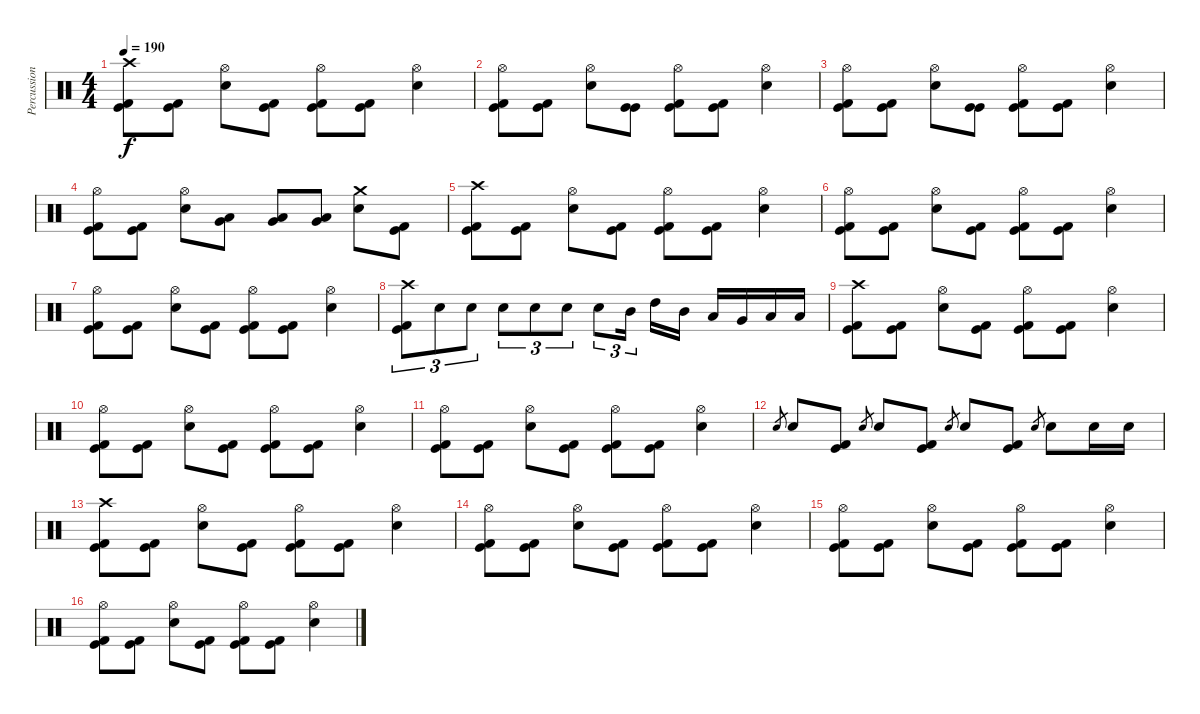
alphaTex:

\track ("Percussions" "Percussion") {instrument percussion}
\staff {score}
\articulation defaults
\ts (4 4)
\tempo 190
\clef neutral
\ks c
("Crash high (hit)" "Kick (hit)" "Kick (hit) 2").8{dy f} ("Kick (hit)" "Kick (hit) 2").8 ("Hi-Hat (open)" "Electric Snare (hit)").8 ("Kick (hit)" "Kick (hit) 2").8 ("Hi-Hat (open)" "Kick (hit)" "Kick (hit) 2").8 ("Kick (hit)" "Kick (hit) 2").8 ("Hi-Hat (open)" "Electric Snare (hit)").4 |
("Hi-Hat (open)" "Kick (hit)" "Kick (hit) 2").8 ("Kick (hit)" "Kick (hit) 2").8 ("Hi-Hat (open)" "Electric Snare (hit)").8 ("Kick (hit)" "Kick (hit)").8 ("Hi-Hat (open)" "Kick (hit)" "Kick (hit) 2").8 ("Kick (hit)" "Kick (hit) 2").8 ("Hi-Hat (open)" "Electric Snare (hit)").4 |
("Hi-Hat (open)" "Kick (hit)" "Kick (hit) 2").8 ("Kick (hit)" "Kick (hit) 2").8 ("Hi-Hat (open)" "Electric Snare (hit)").8 ("Kick (hit)" "Kick (hit)").8 ("Hi-Hat (open)" "Kick (hit)" "Kick (hit) 2").8 ("Kick (hit)" "Kick (hit) 2").8 ("Hi-Hat (open)" "Electric Snare (hit)").4 |
("Hi-Hat (open)" "Kick (hit)" "Kick (hit) 2").8 ("Kick (hit)" "Kick (hit) 2").8 ("Hi-Hat (open)" "Electric Snare (hit)").8 ("Very Low Tom (hit)" "Low Floor Tom (hit)").8 ("Very Low Tom (hit)" "Low Floor Tom (hit)").8 ("Very Low Tom (hit)" "Low Floor Tom (hit)").8 ("Crash medium (hit)" "Electric Snare (hit)").8 ("Kick (hit)" "Kick (hit) 2").8 |
("Crash high (hit)" "Kick (hit)" "Kick (hit) 2").8 ("Kick (hit)" "Kick (hit) 2").8 ("Hi-Hat (open)" "Electric Snare (hit)").8 ("Kick (hit)" "Kick (hit) 2").8 ("Hi-Hat (open)" "Kick (hit)" "Kick (hit) 2").8 ("Kick (hit)" "Kick (hit) 2").8 ("Hi-Hat (open)" "Electric Snare (hit)").4 |
("Hi-Hat (open)" "Kick (hit)" "Kick (hit) 2").8 ("Kick (hit)" "Kick (hit) 2").8 ("Hi-Hat (open)" "Electric Snare (hit)").8 ("Kick (hit)" "Kick (hit) 2").8 ("Hi-Hat (open)" "Kick (hit)" "Kick (hit) 2").8 ("Kick (hit)" "Kick (hit) 2").8 ("Hi-Hat (open)" "Electric Snare (hit)").4 |
("Hi-Hat (open)" "Kick (hit)" "Kick (hit) 2").8 ("Kick (hit)" "Kick (hit) 2").8 ("Hi-Hat (open)" "Electric Snare (hit)").8 ("Kick (hit)" "Kick (hit) 2").8 ("Hi-Hat (open)" "Kick (hit)" "Kick (hit) 2").8 ("Kick (hit)" "Kick (hit) 2").8 ("Hi-Hat (open)" "Electric Snare (hit)").4 |
("Crash high (hit)" "Kick (hit)" "Kick (hit) 2").8{tu (3 2)} "Electric Snare (hit)".8{tu (3 2)} "Electric Snare (hit)".8{tu (3 2)} "Electric Snare (hit)".8{tu (3 2)} "Electric Snare (hit)".8{tu (3 2)} "Electric Snare (hit)".8{tu (3 2)} "Electric Snare (hit)".8{tu (3 2)} "Mid Tom (hit)".16{tu (3 2) beam splitsecondary} "High Tom (hit)".16 "Mid Tom (hit)".16 "Low Tom (hit)".16 "Very Low Tom (hit)".16 "Low Floor Tom (hit)".16 "Low Floor Tom (hit)".16 |
("Crash high (hit)" "Kick (hit)" "Kick (hit) 2").8 ("Kick (hit)" "Kick (hit) 2").8 ("Hi-Hat (open)" "Electric Snare (hit)").8 ("Kick (hit)" "Kick (hit) 2").8 ("Hi-Hat (open)" "Kick (hit)" "Kick (hit) 2").8 ("Kick (hit)" "Kick (hit) 2").8 ("Hi-Hat (open)" "Electric Snare (hit)").4 |
("Hi-Hat (open)" "Kick (hit)" "Kick (hit) 2").8 ("Kick (hit)" "Kick (hit) 2").8 ("Hi-Hat (open)" "Electric Snare (hit)").8 ("Kick (hit)" "Kick (hit) 2").8 ("Hi-Hat (open)" "Kick (hit)" "Kick (hit) 2").8 ("Kick (hit)" "Kick (hit) 2").8 ("Hi-Hat (open)" "Electric Snare (hit)").4 |
("Hi-Hat (open)" "Kick (hit)" "Kick (hit) 2").8 ("Kick (hit)" "Kick (hit) 2").8 ("Hi-Hat (open)" "Electric Snare (hit)").8 ("Kick (hit)" "Kick (hit) 2").8 ("Hi-Hat (open)" "Kick (hit)" "Kick (hit) 2").8 ("Kick (hit)" "Kick (hit) 2").8 ("Hi-Hat (open)" "Electric Snare (hit)").4 |
"Electric Snare (hit)".8{gr} "Electric Snare (hit)".8 ("Kick (hit)" "Kick (hit) 2").8 "Electric Snare (hit)".8{gr} "Electric Snare (hit)".8 ("Kick (hit)" "Kick (hit) 2").8 "Electric Snare (hit)".8{gr} "Electric Snare (hit)".8 ("Kick (hit)" "Kick (hit) 2").8 "Electric Snare (hit)".8{gr} "Electric Snare (hit)".8 "Electric Snare (hit)".16 "Electric Snare (hit)".16 |
("Crash high (hit)" "Kick (hit)" "Kick (hit) 2").8 ("Kick (hit)" "Kick (hit) 2").8 ("Hi-Hat (open)" "Electric Snare (hit)").8 ("Kick (hit)" "Kick (hit) 2").8 ("Hi-Hat (open)" "Kick (hit)" "Kick (hit) 2").8 ("Kick (hit)" "Kick (hit) 2").8 ("Hi-Hat (open)" "Electric Snare (hit)").4 |
("Hi-Hat (open)" "Kick (hit)" "Kick (hit) 2").8 ("Kick (hit)" "Kick (hit) 2").8 ("Hi-Hat (open)" "Electric Snare (hit)").8 ("Kick (hit)" "Kick (hit) 2").8 ("Hi-Hat (open)" "Kick (hit)" "Kick (hit) 2").8 ("Kick (hit)" "Kick (hit) 2").8 ("Hi-Hat (open)" "Electric Snare (hit)").4 |
("Hi-Hat (open)" "Kick (hit)" "Kick (hit) 2").8 ("Kick (hit)" "Kick (hit) 2").8 ("Hi-Hat (open)" "Electric Snare (hit)").8 ("Kick (hit)" "Kick (hit) 2").8 ("Hi-Hat (open)" "Kick (hit)" "Kick (hit) 2").8 ("Kick (hit)" "Kick (hit) 2").8 ("Hi-Hat (open)" "Electric Snare (hit)").4 |
("Hi-Hat (open)" "Kick (hit)" "Kick (hit) 2").8 ("Kick (hit)" "Kick (hit) 2").8 ("Hi-Hat (open)" "Electric Snare (hit)").8 ("Kick (hit)" "Kick (hit) 2").8 ("Hi-Hat (open)" "Kick (hit)" "Kick (hit) 2").8 ("Kick (hit)" "Kick (hit) 2").8 ("Hi-Hat (open)" "Electric Snare (hit)").4
